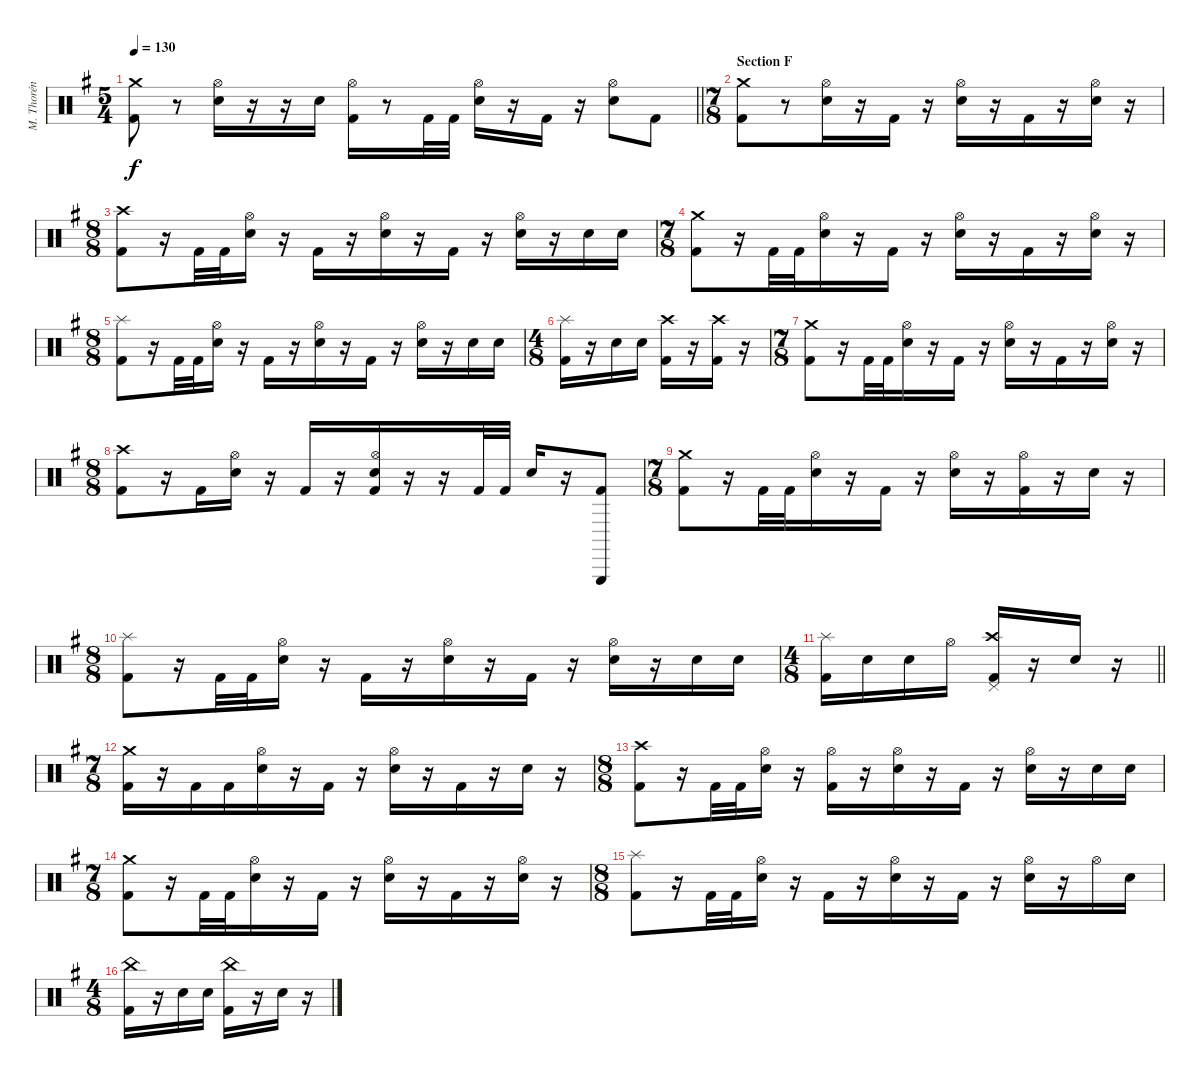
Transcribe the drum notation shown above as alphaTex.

\track ("M. Thorén (Drums)" "M. Thorén ") {instrument percussion}
\staff {score}
\articulation defaults
\ts (5 4)
\tempo 130
\clef neutral
\barLineRight lightlight
\ks eminor
("Crash medium (hit)" "Kick (hit) 2").8{dy f} r.8 ("Hi-Hat (open)" "Electric Snare (hit)").16 r.16 r.16 "Electric Snare (hit)".16 ("Hi-Hat (open)" "Kick (hit) 2").16 r.8 "Kick (hit) 2".32 "Kick (hit) 2".32 ("Hi-Hat (open)" "Electric Snare (hit)").16 r.16 "Kick (hit) 2".16 r.16 ("Hi-Hat (open)" "Electric Snare (hit)").8 "Kick (hit) 2".8 |
\ts (7 8)
\section ("" "Section F")
("Crash medium (hit)" "Kick (hit) 2").8 r.8 ("Hi-Hat (open)" "Electric Snare (hit)").16 r.16 "Kick (hit) 2".16 r.16 ("Hi-Hat (open)" "Electric Snare (hit)").16 r.16 "Kick (hit) 2".16 r.16 ("Hi-Hat (open)" "Electric Snare (hit)").16 r.16 |
\ts (8 8)
("Crash high (hit)" "Kick (hit) 2").8 r.16 "Kick (hit) 2".32 "Kick (hit) 2".32 ("Hi-Hat (open)" "Electric Snare (hit)").16 r.16 "Kick (hit) 2".16 r.16 ("Hi-Hat (open)" "Electric Snare (hit)").16 r.16 "Kick (hit) 2".16 r.16 ("Hi-Hat (open)" "Electric Snare (hit)").16 r.16 "Electric Snare (hit)".16 "Electric Snare (hit)".16 |
\ts (7 8)
("Crash medium (hit)" "Kick (hit) 2").8 r.16 "Kick (hit) 2".32 "Kick (hit) 2".32 ("Hi-Hat (open)" "Electric Snare (hit)").16 r.16 "Kick (hit) 2".16 r.16 ("Hi-Hat (open)" "Electric Snare (hit)").16 r.16 "Kick (hit) 2".16 r.16 ("Hi-Hat (open)" "Electric Snare (hit)").16 r.16 |
\ts (8 8)
("Splash (hit)" "Kick (hit) 2").8 r.16 "Kick (hit) 2".32 "Kick (hit) 2".32 ("Hi-Hat (open)" "Electric Snare (hit)").16 r.16 "Kick (hit) 2".16 r.16 ("Hi-Hat (open)" "Electric Snare (hit)").16 r.16 "Kick (hit) 2".16 r.16 ("Hi-Hat (open)" "Electric Snare (hit)").16 r.16 "Electric Snare (hit)".16 "Electric Snare (hit)".16 |
\ts (4 8)
("Splash (hit)" "Kick (hit) 2").16 r.16 "Electric Snare (hit)".16 "Electric Snare (hit)".16 ("Crash high (hit)" "Kick (hit) 2").16 r.16 ("Crash high (hit)" "Kick (hit) 2").16 r.16 |
\ts (7 8)
("Crash medium (hit)" "Kick (hit) 2").8 r.16 "Kick (hit) 2".32 "Kick (hit) 2".32 ("Hi-Hat (open)" "Electric Snare (hit)").16 r.16 "Kick (hit) 2".16 r.16 ("Hi-Hat (open)" "Electric Snare (hit)").16 r.16 "Kick (hit) 2".16 r.16 ("Hi-Hat (open)" "Electric Snare (hit)").16 r.16 |
\ts (8 8)
("Crash high (hit)" "Kick (hit) 2").8 r.16 "Kick (hit) 2".16 ("Hi-Hat (open)" "Electric Snare (hit)").16 r.16 "Kick (hit) 2".16 r.16 ("Hi-Hat (open)" "Electric Snare (hit)" "Kick (hit) 2").16 r.16 r.16 "Kick (hit) 2".32 "Kick (hit) 2".32 "Electric Snare (hit)".16 r.16 ("Triangle (hit)" "Kick (hit) 2").8 |
\ts (7 8)
("Crash medium (hit)" "Kick (hit) 2").8 r.16 "Kick (hit) 2".32 "Kick (hit) 2".32 ("Hi-Hat (open)" "Electric Snare (hit)").16 r.16 "Kick (hit) 2".16 r.16 ("Hi-Hat (open)" "Electric Snare (hit)").16 r.16 ("Hi-Hat (open)" "Kick (hit) 2").16 r.16 "Electric Snare (hit)".16 r.16 |
\ts (8 8)
("Splash (hit)" "Kick (hit) 2").8 r.16 "Kick (hit) 2".32 "Kick (hit) 2".32 ("Hi-Hat (open)" "Electric Snare (hit)").16 r.16 "Kick (hit) 2".16 r.16 ("Hi-Hat (open)" "Electric Snare (hit)").16 r.16 "Kick (hit) 2".16 r.16 ("Hi-Hat (open)" "Electric Snare (hit)").16 r.16 "Electric Snare (hit)".16 "Electric Snare (hit)".16 |
\ts (4 8)
\barLineRight lightlight
("Splash (hit)" "Kick (hit) 2").16 "Electric Snare (hit)".16 "Electric Snare (hit)".16 "Hi-Hat (open)".16 ("Crash high (hit)" "Pedal Hi-Hat (hit)" "Kick (hit) 2").16 r.16 "Electric Snare (hit)".16 r.16 |
\ts (7 8)
("Crash medium (hit)" "Kick (hit) 2").16 r.16 "Kick (hit) 2".16 "Kick (hit) 2".16 ("Hi-Hat (open)" "Electric Snare (hit)").16 r.16 "Kick (hit) 2".16 r.16 ("Hi-Hat (open)" "Electric Snare (hit)").16 r.16 "Kick (hit) 2".16 r.16 "Electric Snare (hit)".16 r.16 |
\ts (8 8)
("Crash high (hit)" "Kick (hit) 2").8 r.16 "Kick (hit) 2".32 "Kick (hit) 2".32 ("Hi-Hat (open)" "Electric Snare (hit)").16 r.16 ("Hi-Hat (open)" "Kick (hit) 2").16 r.16 ("Hi-Hat (open)" "Electric Snare (hit)").16 r.16 "Kick (hit) 2".16 r.16 ("Hi-Hat (open)" "Electric Snare (hit)").16 r.16 "Electric Snare (hit)".16 "Electric Snare (hit)".16 |
\ts (7 8)
("Crash medium (hit)" "Kick (hit) 2").8 r.16 "Kick (hit) 2".32 "Kick (hit) 2".32 ("Hi-Hat (open)" "Electric Snare (hit)").16 r.16 "Kick (hit) 2".16 r.16 ("Hi-Hat (open)" "Electric Snare (hit)").16 r.16 "Kick (hit) 2".16 r.16 ("Hi-Hat (open)" "Electric Snare (hit)").16 r.16 |
\ts (8 8)
("Splash (hit)" "Kick (hit) 2").8 r.16 "Kick (hit) 2".32 "Kick (hit) 2".32 ("Hi-Hat (open)" "Electric Snare (hit)").16 r.16 "Kick (hit) 2".16 r.16 ("Hi-Hat (open)" "Electric Snare (hit)").16 r.16 "Kick (hit) 2".16 r.16 ("Hi-Hat (open)" "Electric Snare (hit)").16 r.16 "Hi-Hat (open)".16 "Electric Snare (hit)".16 |
\ts (4 8)
("China (hit)" "Kick (hit) 2").16 r.16 "Electric Snare (hit)".16 "Electric Snare (hit)".16 ("China (hit)" "Kick (hit) 2").16 r.16 "Electric Snare (hit)".16 r.16
